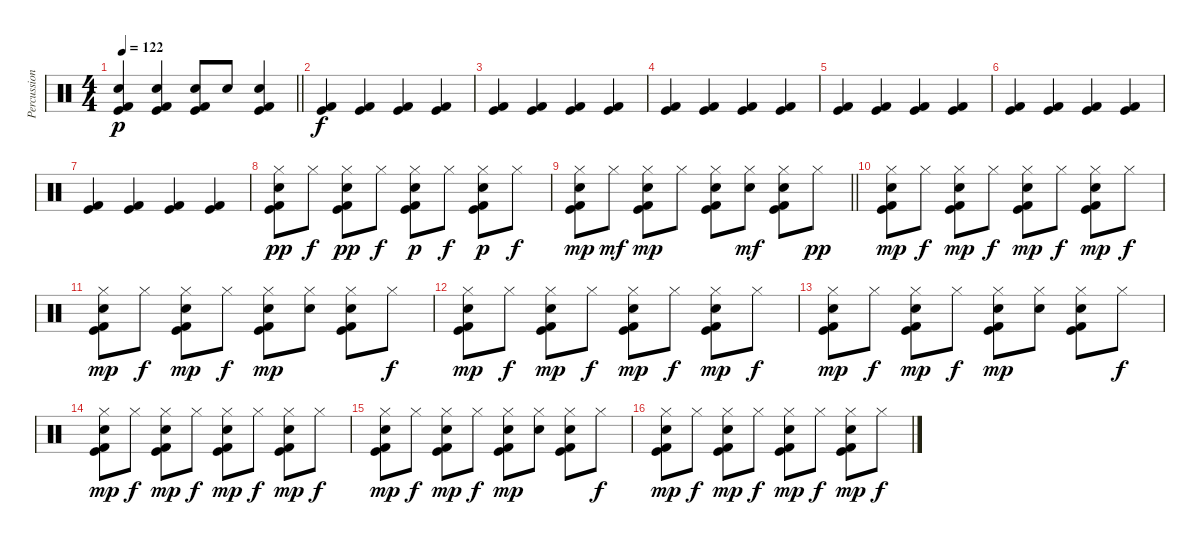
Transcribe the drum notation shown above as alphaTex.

\track ("Percussion" "Percussion") {instrument percussion}
\staff {score}
\articulation defaults
\ts (4 4)
\tempo 122
\clef neutral
\barLineRight lightlight
\ks c
("Hand Clap (hit)" "Kick (hit)" "Kick (hit) 2").4{dy p} ("Hand Clap (hit)" "Kick (hit)" "Kick (hit) 2").4 ("Hand Clap (hit)" "Kick (hit)" "Kick (hit) 2").8 "Hand Clap (hit)".8 ("Hand Clap (hit)" "Kick (hit)" "Kick (hit) 2").4 |
\section ("" "")
("Kick (hit)" "Kick (hit) 2").4{dy f volume 7} ("Kick (hit)" "Kick (hit) 2").4 ("Kick (hit)" "Kick (hit) 2").4 ("Kick (hit)" "Kick (hit) 2").4 |
("Kick (hit)" "Kick (hit) 2").4 ("Kick (hit)" "Kick (hit) 2").4 ("Kick (hit)" "Kick (hit) 2").4 ("Kick (hit)" "Kick (hit) 2").4 |
("Kick (hit)" "Kick (hit) 2").4 ("Kick (hit)" "Kick (hit) 2").4 ("Kick (hit)" "Kick (hit) 2").4 ("Kick (hit)" "Kick (hit) 2").4 |
("Kick (hit)" "Kick (hit) 2").4 ("Kick (hit)" "Kick (hit) 2").4 ("Kick (hit)" "Kick (hit) 2").4 ("Kick (hit)" "Kick (hit) 2").4 |
("Kick (hit)" "Kick (hit) 2").4 ("Kick (hit)" "Kick (hit) 2").4 ("Kick (hit)" "Kick (hit) 2").4 ("Kick (hit)" "Kick (hit) 2").4 |
("Kick (hit)" "Kick (hit) 2").4 ("Kick (hit)" "Kick (hit) 2").4 ("Kick (hit)" "Kick (hit) 2").4 ("Kick (hit)" "Kick (hit) 2").4 |
("Hi-Hat (closed)" "Hand Clap (hit)" "Kick (hit)" "Kick (hit) 2").8{dy pp} "Hi-Hat (closed)".8{dy f} ("Hi-Hat (closed)" "Hand Clap (hit)" "Kick (hit)" "Kick (hit) 2").8{dy pp} "Hi-Hat (closed)".8{dy f} ("Hi-Hat (closed)" "Hand Clap (hit)" "Kick (hit)" "Kick (hit) 2").8{dy p} "Hi-Hat (closed)".8{dy f} ("Hi-Hat (closed)" "Hand Clap (hit)" "Kick (hit)" "Kick (hit) 2").8{dy p} "Hi-Hat (closed)".8{dy f} |
\barLineRight lightlight
("Hi-Hat (closed)" "Hand Clap (hit)" "Kick (hit)" "Kick (hit) 2").8{dy mp} "Hi-Hat (closed)".8{dy mf} ("Hi-Hat (closed)" "Hand Clap (hit)" "Kick (hit)" "Kick (hit) 2").8{dy mp} "Hi-Hat (closed)".8 ("Hi-Hat (closed)" "Hand Clap (hit)" "Kick (hit)" "Kick (hit) 2").8 ("Hi-Hat (closed)" "Hand Clap (hit)").8{dy mf} ("Hi-Hat (closed)" "Hand Clap (hit)" "Kick (hit)" "Kick (hit) 2").8 "Hi-Hat (closed)".8{dy pp} |
\section ("" "")
("Hi-Hat (closed)" "Hand Clap (hit)" "Kick (hit)" "Kick (hit) 2").8{dy mp volume 13} "Hi-Hat (closed)".8{dy f} ("Hi-Hat (closed)" "Hand Clap (hit)" "Kick (hit)" "Kick (hit) 2").8{dy mp} "Hi-Hat (closed)".8{dy f} ("Hi-Hat (closed)" "Hand Clap (hit)" "Kick (hit)" "Kick (hit) 2").8{dy mp} "Hi-Hat (closed)".8{dy f} ("Hi-Hat (closed)" "Hand Clap (hit)" "Kick (hit)" "Kick (hit) 2").8{dy mp} "Hi-Hat (closed)".8{dy f} |
("Hi-Hat (closed)" "Hand Clap (hit)" "Kick (hit)" "Kick (hit) 2").8{dy mp} "Hi-Hat (closed)".8{dy f} ("Hi-Hat (closed)" "Hand Clap (hit)" "Kick (hit)" "Kick (hit) 2").8{dy mp} "Hi-Hat (closed)".8{dy f} ("Hi-Hat (closed)" "Hand Clap (hit)" "Kick (hit)" "Kick (hit) 2").8{dy mp} ("Hi-Hat (closed)" "Hand Clap (hit)").8 ("Hi-Hat (closed)" "Hand Clap (hit)" "Kick (hit)" "Kick (hit) 2").8 "Hi-Hat (closed)".8{dy f} |
("Hi-Hat (closed)" "Hand Clap (hit)" "Kick (hit)" "Kick (hit) 2").8{dy mp} "Hi-Hat (closed)".8{dy f} ("Hi-Hat (closed)" "Hand Clap (hit)" "Kick (hit)" "Kick (hit) 2").8{dy mp} "Hi-Hat (closed)".8{dy f} ("Hi-Hat (closed)" "Hand Clap (hit)" "Kick (hit)" "Kick (hit) 2").8{dy mp} "Hi-Hat (closed)".8{dy f} ("Hi-Hat (closed)" "Hand Clap (hit)" "Kick (hit)" "Kick (hit) 2").8{dy mp} "Hi-Hat (closed)".8{dy f} |
("Hi-Hat (closed)" "Hand Clap (hit)" "Kick (hit)" "Kick (hit) 2").8{dy mp} "Hi-Hat (closed)".8{dy f} ("Hi-Hat (closed)" "Hand Clap (hit)" "Kick (hit)" "Kick (hit) 2").8{dy mp} "Hi-Hat (closed)".8{dy f} ("Hi-Hat (closed)" "Hand Clap (hit)" "Kick (hit)" "Kick (hit) 2").8{dy mp} ("Hi-Hat (closed)" "Hand Clap (hit)").8 ("Hi-Hat (closed)" "Hand Clap (hit)" "Kick (hit)" "Kick (hit) 2").8 "Hi-Hat (closed)".8{dy f} |
("Hi-Hat (closed)" "Hand Clap (hit)" "Kick (hit)" "Kick (hit) 2").8{dy mp} "Hi-Hat (closed)".8{dy f} ("Hi-Hat (closed)" "Hand Clap (hit)" "Kick (hit)" "Kick (hit) 2").8{dy mp} "Hi-Hat (closed)".8{dy f} ("Hi-Hat (closed)" "Hand Clap (hit)" "Kick (hit)" "Kick (hit) 2").8{dy mp} "Hi-Hat (closed)".8{dy f} ("Hi-Hat (closed)" "Hand Clap (hit)" "Kick (hit)" "Kick (hit) 2").8{dy mp} "Hi-Hat (closed)".8{dy f} |
("Hi-Hat (closed)" "Hand Clap (hit)" "Kick (hit)" "Kick (hit) 2").8{dy mp} "Hi-Hat (closed)".8{dy f} ("Hi-Hat (closed)" "Hand Clap (hit)" "Kick (hit)" "Kick (hit) 2").8{dy mp} "Hi-Hat (closed)".8{dy f} ("Hi-Hat (closed)" "Hand Clap (hit)" "Kick (hit)" "Kick (hit) 2").8{dy mp} ("Hi-Hat (closed)" "Hand Clap (hit)").8 ("Hi-Hat (closed)" "Hand Clap (hit)" "Kick (hit)" "Kick (hit) 2").8 "Hi-Hat (closed)".8{dy f} |
("Hi-Hat (closed)" "Hand Clap (hit)" "Kick (hit)" "Kick (hit) 2").8{dy mp} "Hi-Hat (closed)".8{dy f} ("Hi-Hat (closed)" "Hand Clap (hit)" "Kick (hit)" "Kick (hit) 2").8{dy mp} "Hi-Hat (closed)".8{dy f} ("Hi-Hat (closed)" "Hand Clap (hit)" "Kick (hit)" "Kick (hit) 2").8{dy mp} "Hi-Hat (closed)".8{dy f} ("Hi-Hat (closed)" "Hand Clap (hit)" "Kick (hit)" "Kick (hit) 2").8{dy mp} "Hi-Hat (closed)".8{dy f}
